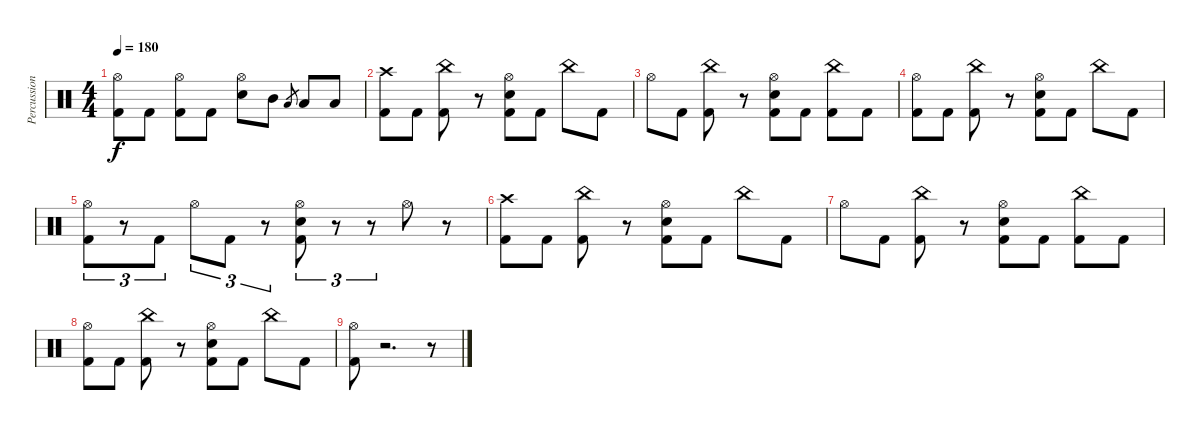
\track ("Percussion" "Percussion") {instrument percussion}
\staff {score}
\articulation defaults
\ts (4 4)
\tempo 180
\clef neutral
\ks c
("Hi-Hat (open)" "Kick (hit) 2").8{dy f} "Kick (hit) 2".8 ("Hi-Hat (open)" "Kick (hit) 2").8 "Kick (hit) 2".8 ("Hi-Hat (open)" "Electric Snare (hit)").8 "Mid Tom (hit)".8 "Low Tom (hit)".8{gr} "Low Tom (hit)".8 "Low Floor Tom (hit)".8 |
("Crash high (hit)" "Kick (hit) 2").8 "Kick (hit) 2".8 ("China (hit)" "Kick (hit) 2").8 r.8 ("Hi-Hat (open)" "Electric Snare (hit)" "Kick (hit) 2").8 "Kick (hit) 2".8 "China (hit)".8 "Kick (hit) 2".8 |
"Hi-Hat (open)".8 "Kick (hit) 2".8 ("China (hit)" "Kick (hit) 2").8 r.8 ("Hi-Hat (open)" "Electric Snare (hit)" "Kick (hit) 2").8 "Kick (hit) 2".8 ("China (hit)" "Kick (hit) 2").8 "Kick (hit) 2".8 |
("Hi-Hat (open)" "Kick (hit) 2").8 "Kick (hit) 2".8 ("China (hit)" "Kick (hit) 2").8 r.8 ("Hi-Hat (open)" "Electric Snare (hit)" "Kick (hit) 2").8 "Kick (hit) 2".8 "China (hit)".8 "Kick (hit) 2".8 |
("Hi-Hat (open)" "Kick (hit) 2").8{tu (3 2)} r.8{tu (3 2)} "Kick (hit) 2".8{tu (3 2)} "Hi-Hat (open)".8{tu (3 2)} "Kick (hit) 2".8{tu (3 2)} r.8{tu (3 2)} ("Hi-Hat (open)" "Electric Snare (hit)" "Kick (hit) 2").8{tu (3 2)} r.8{tu (3 2)} r.8{tu (3 2)} "Hi-Hat (open)".8 r.8 |
("Crash high (hit)" "Kick (hit) 2").8 "Kick (hit) 2".8 ("China (hit)" "Kick (hit) 2").8 r.8 ("Hi-Hat (open)" "Electric Snare (hit)" "Kick (hit) 2").8 "Kick (hit) 2".8 "China (hit)".8 "Kick (hit) 2".8 |
"Hi-Hat (open)".8 "Kick (hit) 2".8 ("China (hit)" "Kick (hit) 2").8 r.8 ("Hi-Hat (open)" "Electric Snare (hit)" "Kick (hit) 2").8 "Kick (hit) 2".8 ("China (hit)" "Kick (hit) 2").8 "Kick (hit) 2".8 |
("Hi-Hat (open)" "Kick (hit) 2").8 "Kick (hit) 2".8 ("China (hit)" "Kick (hit) 2").8 r.8 ("Hi-Hat (open)" "Electric Snare (hit)" "Kick (hit) 2").8 "Kick (hit) 2".8 "China (hit)".8 "Kick (hit) 2".8 |
("Hi-Hat (open)" "Kick (hit) 2").8 r.2{d} r.8
